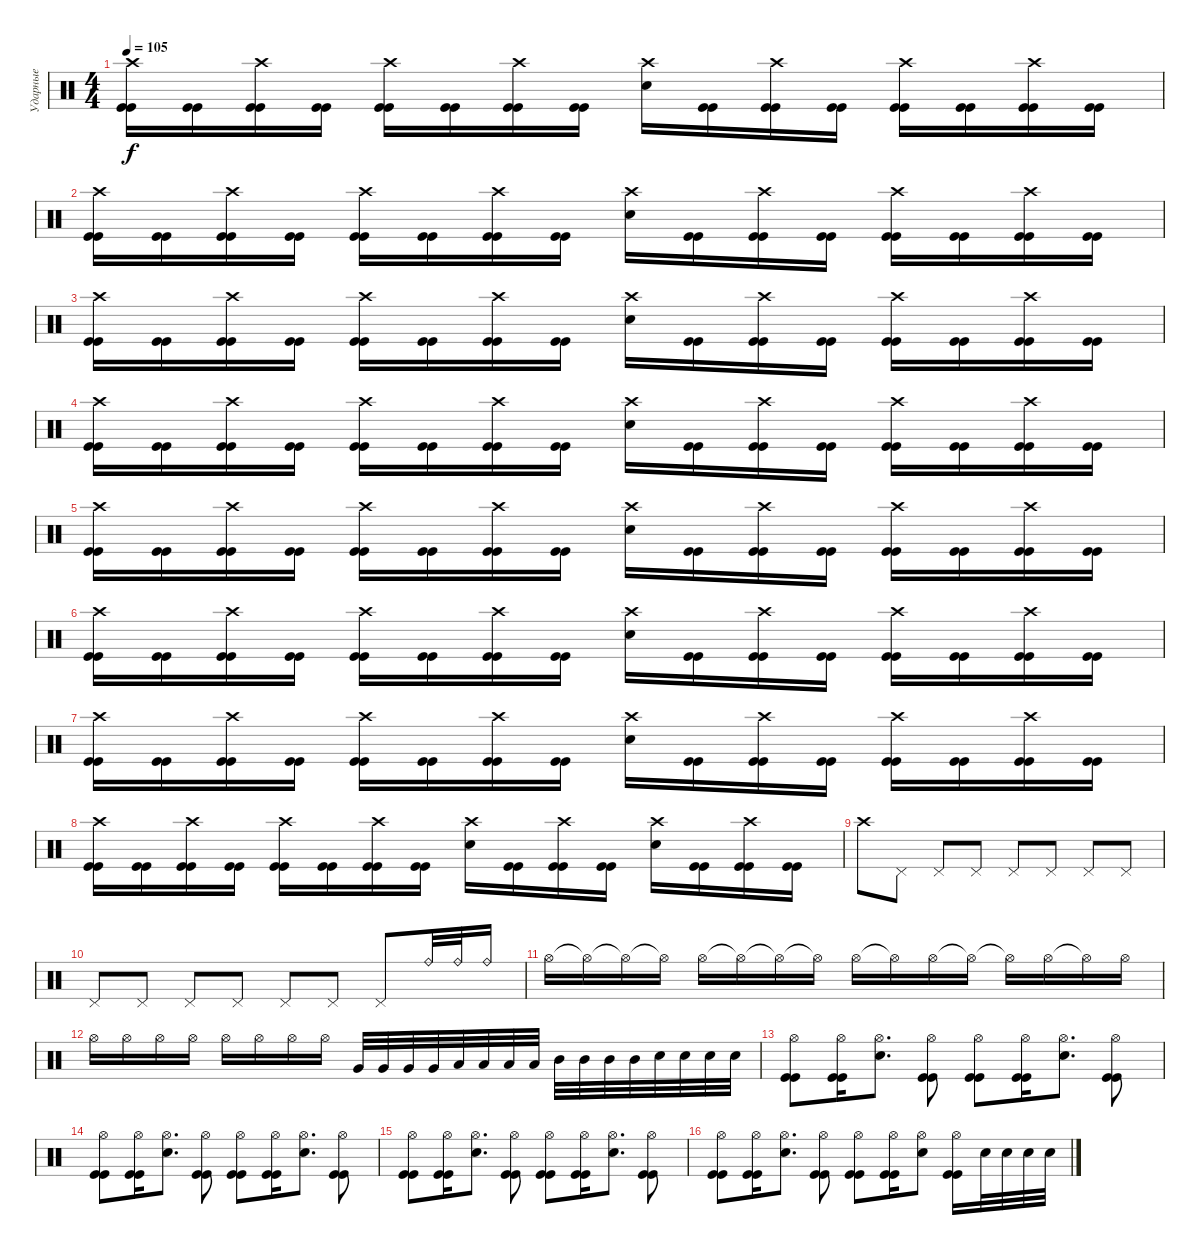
\track ("Ударные" "Ударные") {instrument percussion}
\staff {score}
\articulation defaults
\ts (4 4)
\tempo 105
\clef neutral
\ks c
("Crash high (hit)" "Kick (hit)" "Kick (hit)").16{dy f} ("Kick (hit)" "Kick (hit)").16 ("Crash high (hit)" "Kick (hit)" "Kick (hit)").16 ("Kick (hit)" "Kick (hit)").16 ("Crash high (hit)" "Kick (hit)" "Kick (hit)").16 ("Kick (hit)" "Kick (hit)").16 ("Crash high (hit)" "Kick (hit)" "Kick (hit)").16 ("Kick (hit)" "Kick (hit)").16 ("Crash high (hit)" "Electric Snare (hit)").16 ("Kick (hit)" "Kick (hit)").16 ("Crash high (hit)" "Kick (hit)" "Kick (hit)").16 ("Kick (hit)" "Kick (hit)").16 ("Crash high (hit)" "Kick (hit)" "Kick (hit)").16 ("Kick (hit)" "Kick (hit)").16 ("Crash high (hit)" "Kick (hit)" "Kick (hit)").16 ("Kick (hit)" "Kick (hit)").16 |
("Crash high (hit)" "Kick (hit)" "Kick (hit)").16 ("Kick (hit)" "Kick (hit)").16 ("Crash high (hit)" "Kick (hit)" "Kick (hit)").16 ("Kick (hit)" "Kick (hit)").16 ("Crash high (hit)" "Kick (hit)" "Kick (hit)").16 ("Kick (hit)" "Kick (hit)").16 ("Crash high (hit)" "Kick (hit)" "Kick (hit)").16 ("Kick (hit)" "Kick (hit)").16 ("Crash high (hit)" "Electric Snare (hit)").16 ("Kick (hit)" "Kick (hit)").16 ("Crash high (hit)" "Kick (hit)" "Kick (hit)").16 ("Kick (hit)" "Kick (hit)").16 ("Crash high (hit)" "Kick (hit)" "Kick (hit)").16 ("Kick (hit)" "Kick (hit)").16 ("Crash high (hit)" "Kick (hit)" "Kick (hit)").16 ("Kick (hit)" "Kick (hit)").16 |
("Crash high (hit)" "Kick (hit)" "Kick (hit)").16 ("Kick (hit)" "Kick (hit)").16 ("Crash high (hit)" "Kick (hit)" "Kick (hit)").16 ("Kick (hit)" "Kick (hit)").16 ("Crash high (hit)" "Kick (hit)" "Kick (hit)").16 ("Kick (hit)" "Kick (hit)").16 ("Crash high (hit)" "Kick (hit)" "Kick (hit)").16 ("Kick (hit)" "Kick (hit)").16 ("Crash high (hit)" "Electric Snare (hit)").16 ("Kick (hit)" "Kick (hit)").16 ("Crash high (hit)" "Kick (hit)" "Kick (hit)").16 ("Kick (hit)" "Kick (hit)").16 ("Crash high (hit)" "Kick (hit)" "Kick (hit)").16 ("Kick (hit)" "Kick (hit)").16 ("Crash high (hit)" "Kick (hit)" "Kick (hit)").16 ("Kick (hit)" "Kick (hit)").16 |
("Crash high (hit)" "Kick (hit)" "Kick (hit)").16 ("Kick (hit)" "Kick (hit)").16 ("Crash high (hit)" "Kick (hit)" "Kick (hit)").16 ("Kick (hit)" "Kick (hit)").16 ("Crash high (hit)" "Kick (hit)" "Kick (hit)").16 ("Kick (hit)" "Kick (hit)").16 ("Crash high (hit)" "Kick (hit)" "Kick (hit)").16 ("Kick (hit)" "Kick (hit)").16 ("Crash high (hit)" "Electric Snare (hit)").16 ("Kick (hit)" "Kick (hit)").16 ("Crash high (hit)" "Kick (hit)" "Kick (hit)").16 ("Kick (hit)" "Kick (hit)").16 ("Crash high (hit)" "Kick (hit)" "Kick (hit)").16 ("Kick (hit)" "Kick (hit)").16 ("Crash high (hit)" "Kick (hit)" "Kick (hit)").16 ("Kick (hit)" "Kick (hit)").16 |
("Crash high (hit)" "Kick (hit)" "Kick (hit)").16 ("Kick (hit)" "Kick (hit)").16 ("Crash high (hit)" "Kick (hit)" "Kick (hit)").16 ("Kick (hit)" "Kick (hit)").16 ("Crash high (hit)" "Kick (hit)" "Kick (hit)").16 ("Kick (hit)" "Kick (hit)").16 ("Crash high (hit)" "Kick (hit)" "Kick (hit)").16 ("Kick (hit)" "Kick (hit)").16 ("Crash high (hit)" "Electric Snare (hit)").16 ("Kick (hit)" "Kick (hit)").16 ("Crash high (hit)" "Kick (hit)" "Kick (hit)").16 ("Kick (hit)" "Kick (hit)").16 ("Crash high (hit)" "Kick (hit)" "Kick (hit)").16 ("Kick (hit)" "Kick (hit)").16 ("Crash high (hit)" "Kick (hit)" "Kick (hit)").16 ("Kick (hit)" "Kick (hit)").16 |
("Crash high (hit)" "Kick (hit)" "Kick (hit)").16 ("Kick (hit)" "Kick (hit)").16 ("Crash high (hit)" "Kick (hit)" "Kick (hit)").16 ("Kick (hit)" "Kick (hit)").16 ("Crash high (hit)" "Kick (hit)" "Kick (hit)").16 ("Kick (hit)" "Kick (hit)").16 ("Crash high (hit)" "Kick (hit)" "Kick (hit)").16 ("Kick (hit)" "Kick (hit)").16 ("Crash high (hit)" "Electric Snare (hit)").16 ("Kick (hit)" "Kick (hit)").16 ("Crash high (hit)" "Kick (hit)" "Kick (hit)").16 ("Kick (hit)" "Kick (hit)").16 ("Crash high (hit)" "Kick (hit)" "Kick (hit)").16 ("Kick (hit)" "Kick (hit)").16 ("Crash high (hit)" "Kick (hit)" "Kick (hit)").16 ("Kick (hit)" "Kick (hit)").16 |
("Crash high (hit)" "Kick (hit)" "Kick (hit)").16 ("Kick (hit)" "Kick (hit)").16 ("Crash high (hit)" "Kick (hit)" "Kick (hit)").16 ("Kick (hit)" "Kick (hit)").16 ("Crash high (hit)" "Kick (hit)" "Kick (hit)").16 ("Kick (hit)" "Kick (hit)").16 ("Crash high (hit)" "Kick (hit)" "Kick (hit)").16 ("Kick (hit)" "Kick (hit)").16 ("Crash high (hit)" "Electric Snare (hit)").16 ("Kick (hit)" "Kick (hit)").16 ("Crash high (hit)" "Kick (hit)" "Kick (hit)").16 ("Kick (hit)" "Kick (hit)").16 ("Crash high (hit)" "Kick (hit)" "Kick (hit)").16 ("Kick (hit)" "Kick (hit)").16 ("Crash high (hit)" "Kick (hit)" "Kick (hit)").16 ("Kick (hit)" "Kick (hit)").16 |
("Crash high (hit)" "Kick (hit)" "Kick (hit)").16 ("Kick (hit)" "Kick (hit)").16 ("Crash high (hit)" "Kick (hit)" "Kick (hit)").16 ("Kick (hit)" "Kick (hit)").16 ("Crash high (hit)" "Kick (hit)" "Kick (hit)").16 ("Kick (hit)" "Kick (hit)").16 ("Crash high (hit)" "Kick (hit)" "Kick (hit)").16 ("Kick (hit)" "Kick (hit)").16 ("Crash high (hit)" "Electric Snare (hit)").16 ("Kick (hit)" "Kick (hit)").16 ("Crash high (hit)" "Kick (hit)" "Kick (hit)").16 ("Kick (hit)" "Kick (hit)").16 ("Crash high (hit)" "Electric Snare (hit)").16 ("Kick (hit)" "Kick (hit)").16 ("Crash high (hit)" "Kick (hit)" "Kick (hit)").16 ("Kick (hit)" "Kick (hit)").16 |
"Crash high (hit)".8 "Pedal Hi-Hat (hit)".8 "Pedal Hi-Hat (hit)".8 "Pedal Hi-Hat (hit)".8 "Pedal Hi-Hat (hit)".8 "Pedal Hi-Hat (hit)".8 "Pedal Hi-Hat (hit)".8 "Pedal Hi-Hat (hit)".8 |
"Pedal Hi-Hat (hit)".8 "Pedal Hi-Hat (hit)".8 "Pedal Hi-Hat (hit)".8 "Pedal Hi-Hat (hit)".8 "Pedal Hi-Hat (hit)".8 "Pedal Hi-Hat (hit)".8 "Pedal Hi-Hat (hit)".8 "Ride (bell)".32 "Ride (bell)".32 "Ride (bell)".16 |
"Hi-Hat (open)".16 "Hi-Hat (open)"{t}.16 "Hi-Hat (open)"{t}.16 "Hi-Hat (open)"{t}.16 "Hi-Hat (open)".16 "Hi-Hat (open)"{t}.16 "Hi-Hat (open)"{t}.16 "Hi-Hat (open)"{t}.16 "Hi-Hat (open)".16 "Hi-Hat (open)"{t}.16 "Hi-Hat (open)".16 "Hi-Hat (open)"{t}.16 "Hi-Hat (open)"{t}.16 "Hi-Hat (open)".16 "Hi-Hat (open)"{t}.16 "Hi-Hat (open)".16 |
"Hi-Hat (open)".16 "Hi-Hat (open)".16 "Hi-Hat (open)".16 "Hi-Hat (open)".16 "Hi-Hat (open)".16 "Hi-Hat (open)".16 "Hi-Hat (open)".16 "Hi-Hat (open)".16 "Very Low Tom (hit)".32 "Very Low Tom (hit)".32 "Very Low Tom (hit)".32 "Very Low Tom (hit)".32 "Low Tom (hit)".32 "Low Tom (hit)".32 "Low Tom (hit)".32 "Low Tom (hit)".32 "Mid Tom (hit)".32 "Mid Tom (hit)".32 "Mid Tom (hit)".32 "Mid Tom (hit)".32 "Electric Snare (hit)".32 "Electric Snare (hit)".32 "Electric Snare (hit)".32 "Electric Snare (hit)".32 |
("Hi-Hat (open)" "Kick (hit)" "Kick (hit)").8 ("Hi-Hat (open)" "Kick (hit)" "Kick (hit)").16 ("Hi-Hat (open)" "Electric Snare (hit)").8{d} ("Hi-Hat (open)" "Kick (hit)" "Kick (hit)").8 ("Hi-Hat (open)" "Kick (hit)" "Kick (hit)").8 ("Hi-Hat (open)" "Kick (hit)" "Kick (hit)").16 ("Hi-Hat (open)" "Electric Snare (hit)").8{d} ("Hi-Hat (open)" "Kick (hit)" "Kick (hit)").8 |
("Hi-Hat (open)" "Kick (hit)" "Kick (hit)").8 ("Hi-Hat (open)" "Kick (hit)" "Kick (hit)").16 ("Hi-Hat (open)" "Electric Snare (hit)").8{d} ("Hi-Hat (open)" "Kick (hit)" "Kick (hit)").8 ("Hi-Hat (open)" "Kick (hit)" "Kick (hit)").8 ("Hi-Hat (open)" "Kick (hit)" "Kick (hit)").16 ("Hi-Hat (open)" "Electric Snare (hit)").8{d} ("Hi-Hat (open)" "Kick (hit)" "Kick (hit)").8 |
("Hi-Hat (open)" "Kick (hit)" "Kick (hit)").8 ("Hi-Hat (open)" "Kick (hit)" "Kick (hit)").16 ("Hi-Hat (open)" "Electric Snare (hit)").8{d} ("Hi-Hat (open)" "Kick (hit)" "Kick (hit)").8 ("Hi-Hat (open)" "Kick (hit)" "Kick (hit)").8 ("Hi-Hat (open)" "Kick (hit)" "Kick (hit)").16 ("Hi-Hat (open)" "Electric Snare (hit)").8{d} ("Hi-Hat (open)" "Kick (hit)" "Kick (hit)").8 |
("Hi-Hat (open)" "Kick (hit)" "Kick (hit)").8 ("Hi-Hat (open)" "Kick (hit)" "Kick (hit)").16 ("Hi-Hat (open)" "Electric Snare (hit)").8{d} ("Hi-Hat (open)" "Kick (hit)" "Kick (hit)").8 ("Hi-Hat (open)" "Kick (hit)" "Kick (hit)").8 ("Hi-Hat (open)" "Kick (hit)" "Kick (hit)").16 ("Hi-Hat (open)" "Electric Snare (hit)").8 ("Hi-Hat (open)" "Kick (hit)" "Kick (hit)").16 "Electric Snare (hit)".32 "Electric Snare (hit)".32 "Electric Snare (hit)".32 "Electric Snare (hit)".32
